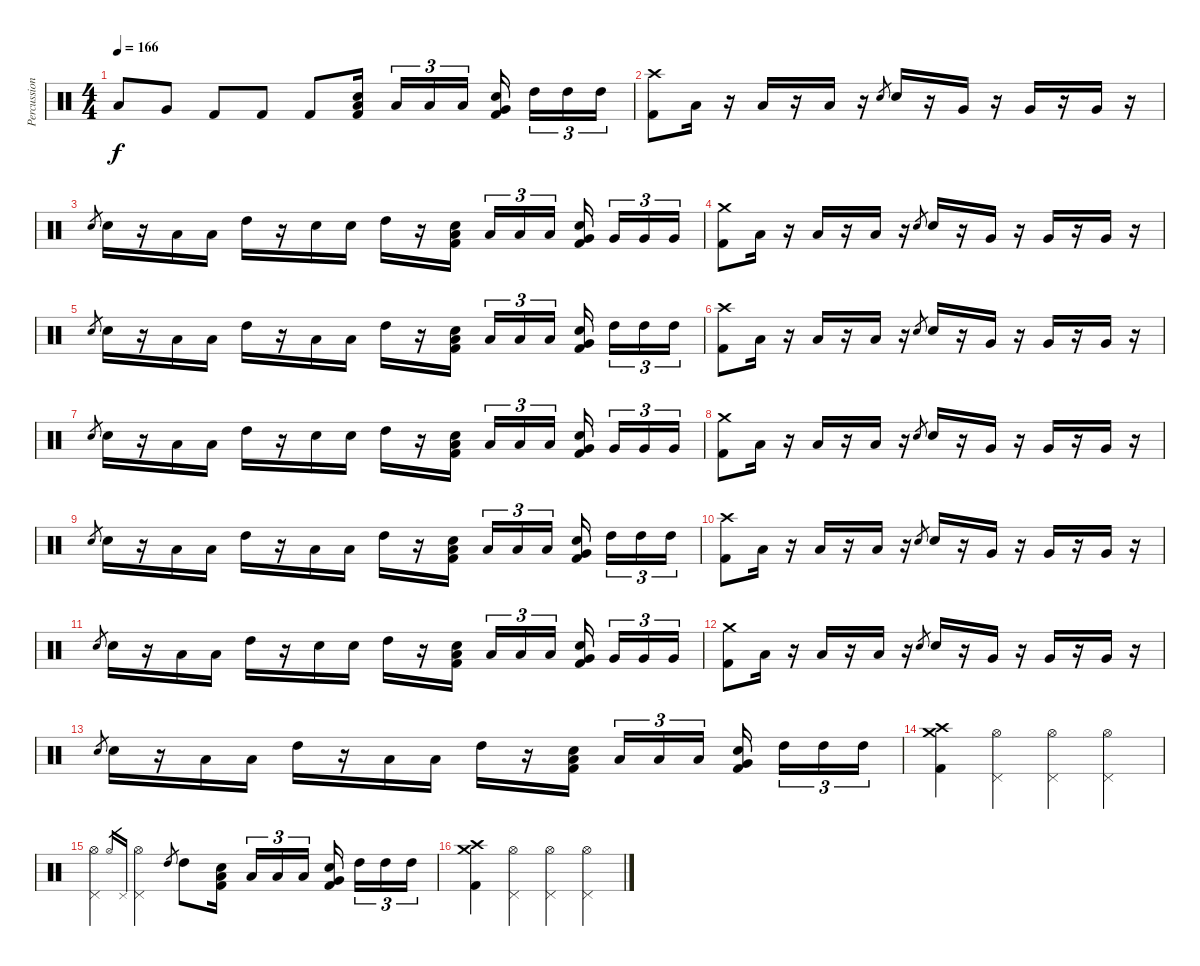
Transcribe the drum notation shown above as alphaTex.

\track ("Percussion" "Percussion") {instrument percussion}
\staff {score}
\articulation defaults
\ts (4 4)
\tempo 166
\clef neutral
\ks c "Low Floor Tom (hit)".8{dy f} "Very Low Tom (hit)".8 "Kick (hit) 2".8 "Kick (hit) 2".8 "Kick (hit) 2".8
("Low Floor Tom (hit)" "Snare (hit) 2" "Kick (hit) 2").16 "Low Tom (hit)".16{tu (3 2)} "Low Tom (hit)".16{tu (3 2)} "Low Tom (hit)".16{tu (3 2)} ("Very Low Tom (hit)" "Snare (hit) 2" "Kick (hit) 2").16 "High Tom (hit)".16{tu (3 2)} "High Tom (hit)".16{tu (3 2)} "High Tom (hit)".16{tu (3 2)} |
("Crash high (hit)" "Kick (hit) 2").8 "Low Floor Tom (hit)".16 r.16 "Low Floor Tom (hit)".16 r.16 "Low Floor Tom (hit)".16 r.16 "Snare (hit) 2".8{gr} "Snare (hit) 2".16 r.16 "Very Low Tom (hit)".16 r.16 "Very Low Tom (hit)".16 r.16 "Very Low Tom (hit)".16 r.16 |
"Snare (hit) 2".8{gr} "Snare (hit) 2".16 r.16 "Low Tom (hit)".16 "Low Tom (hit)".16 "High Tom (hit)".16 r.16 "Snare (hit) 2".16 "Snare (hit) 2".16 "High Tom (hit)".16 r.16 ("Snare (hit) 2" "Low Floor Tom (hit)" "Kick (hit) 2").16 "Low Floor Tom (hit)".16{tu (3 2)} "Low Floor Tom (hit)".16{tu (3 2)} "Low Floor Tom (hit)".16{tu (3 2)} ("Snare (hit) 2" "Very Low Tom (hit)" "Kick (hit) 2").16 "Very Low Tom (hit)".16{tu (3 2)} "Very Low Tom (hit)".16{tu (3 2)} "Very Low Tom (hit)".16{tu (3 2)} |
("Crash medium (hit)" "Kick (hit) 2").8 "Low Floor Tom (hit)".16 r.16 "Low Floor Tom (hit)".16 r.16 "Low Floor Tom (hit)".16 r.16 "Snare (hit) 2".8{gr} "Snare (hit) 2".16 r.16 "Very Low Tom (hit)".16 r.16 "Very Low Tom (hit)".16 r.16 "Very Low Tom (hit)".16 r.16 |
"Snare (hit) 2".8{gr} "Snare (hit) 2".16 r.16 "Low Tom (hit)".16 "Low Tom (hit)".16 "High Tom (hit)".16 r.16 "Low Tom (hit)".16 "Low Tom (hit)".16 "High Tom (hit)".16 r.16 ("Low Floor Tom (hit)" "Snare (hit) 2" "Kick (hit) 2").16 "Low Tom (hit)".16{tu (3 2)} "Low Tom (hit)".16{tu (3 2)} "Low Tom (hit)".16{tu (3 2)} ("Very Low Tom (hit)" "Snare (hit) 2" "Kick (hit) 2").16 "High Tom (hit)".16{tu (3 2)} "High Tom (hit)".16{tu (3 2)} "High Tom (hit)".16{tu (3 2)} |
("Crash high (hit)" "Kick (hit) 2").8 "Low Floor Tom (hit)".16 r.16 "Low Floor Tom (hit)".16 r.16 "Low Floor Tom (hit)".16 r.16 "Snare (hit) 2".8{gr} "Snare (hit) 2".16 r.16 "Very Low Tom (hit)".16 r.16 "Very Low Tom (hit)".16 r.16 "Very Low Tom (hit)".16 r.16 |
"Snare (hit) 2".8{gr} "Snare (hit) 2".16 r.16 "Low Tom (hit)".16 "Low Tom (hit)".16 "High Tom (hit)".16 r.16 "Snare (hit) 2".16 "Snare (hit) 2".16 "High Tom (hit)".16 r.16 ("Snare (hit) 2" "Low Floor Tom (hit)" "Kick (hit) 2").16 "Low Floor Tom (hit)".16{tu (3 2)} "Low Floor Tom (hit)".16{tu (3 2)} "Low Floor Tom (hit)".16{tu (3 2)} ("Snare (hit) 2" "Very Low Tom (hit)" "Kick (hit) 2").16 "Very Low Tom (hit)".16{tu (3 2)} "Very Low Tom (hit)".16{tu (3 2)} "Very Low Tom (hit)".16{tu (3 2)} |
("Crash medium (hit)" "Kick (hit) 2").8 "Low Floor Tom (hit)".16 r.16 "Low Floor Tom (hit)".16 r.16 "Low Floor Tom (hit)".16 r.16 "Snare (hit) 2".8{gr} "Snare (hit) 2".16 r.16 "Very Low Tom (hit)".16 r.16 "Very Low Tom (hit)".16 r.16 "Very Low Tom (hit)".16 r.16 |
"Snare (hit) 2".8{gr} "Snare (hit) 2".16 r.16 "Low Tom (hit)".16 "Low Tom (hit)".16 "High Tom (hit)".16 r.16 "Low Tom (hit)".16 "Low Tom (hit)".16 "High Tom (hit)".16 r.16 ("Low Floor Tom (hit)" "Snare (hit) 2" "Kick (hit) 2").16 "Low Tom (hit)".16{tu (3 2)} "Low Tom (hit)".16{tu (3 2)} "Low Tom (hit)".16{tu (3 2)} ("Very Low Tom (hit)" "Snare (hit) 2" "Kick (hit) 2").16 "High Tom (hit)".16{tu (3 2)} "High Tom (hit)".16{tu (3 2)} "High Tom (hit)".16{tu (3 2)} |
("Crash high (hit)" "Kick (hit) 2").8 "Low Floor Tom (hit)".16 r.16 "Low Floor Tom (hit)".16 r.16 "Low Floor Tom (hit)".16 r.16 "Snare (hit) 2".8{gr} "Snare (hit) 2".16 r.16 "Very Low Tom (hit)".16 r.16 "Very Low Tom (hit)".16 r.16 "Very Low Tom (hit)".16 r.16 |
"Snare (hit) 2".8{gr} "Snare (hit) 2".16 r.16 "Low Tom (hit)".16 "Low Tom (hit)".16 "High Tom (hit)".16 r.16 "Snare (hit) 2".16 "Snare (hit) 2".16 "High Tom (hit)".16 r.16 ("Snare (hit) 2" "Low Floor Tom (hit)" "Kick (hit) 2").16 "Low Floor Tom (hit)".16{tu (3 2)} "Low Floor Tom (hit)".16{tu (3 2)} "Low Floor Tom (hit)".16{tu (3 2)} ("Snare (hit) 2" "Very Low Tom (hit)" "Kick (hit) 2").16 "Very Low Tom (hit)".16{tu (3 2)} "Very Low Tom (hit)".16{tu (3 2)} "Very Low Tom (hit)".16{tu (3 2)} |
("Crash medium (hit)" "Kick (hit) 2").8 "Low Floor Tom (hit)".16 r.16 "Low Floor Tom (hit)".16 r.16 "Low Floor Tom (hit)".16 r.16 "Snare (hit) 2".8{gr} "Snare (hit) 2".16 r.16 "Very Low Tom (hit)".16 r.16 "Very Low Tom (hit)".16 r.16 "Very Low Tom (hit)".16 r.16 |
"Snare (hit) 2".8{gr} "Snare (hit) 2".16 r.16 "Low Tom (hit)".16 "Low Tom (hit)".16 "High Tom (hit)".16 r.16 "Low Tom (hit)".16 "Low Tom (hit)".16 "High Tom (hit)".16 r.16 ("Low Floor Tom (hit)" "Snare (hit) 2" "Kick (hit) 2").16 "Low Tom (hit)".16{tu (3 2)} "Low Tom (hit)".16{tu (3 2)} "Low Tom (hit)".16{tu (3 2)} ("Very Low Tom (hit)" "Snare (hit) 2" "Kick (hit) 2").16 "High Tom (hit)".16{tu (3 2)} "High Tom (hit)".16{tu (3 2)} "High Tom (hit)".16{tu (3 2)} |
("Crash high (hit)" "Crash medium (hit)" "Kick (hit) 2").4 ("Hi-Hat (open)" "Pedal Hi-Hat (hit)").4 ("Hi-Hat (open)" "Pedal Hi-Hat (hit)").4 ("Hi-Hat (open)" "Pedal Hi-Hat (hit)").4 |
("Hi-Hat (open)" "Pedal Hi-Hat (hit)").4 "Hi-Hat (open)".16{gr} "Pedal Hi-Hat (hit)".16{gr} ("Hi-Hat (open)" "Pedal Hi-Hat (hit)").4 "High Tom (hit)".8{gr} "High Tom (hit)".8 ("Low Floor Tom (hit)" "Snare (hit) 2" "Kick (hit) 2").16 "Low Tom (hit)".16{tu (3 2)} "Low Tom (hit)".16{tu (3 2)} "Low Tom (hit)".16{tu (3 2)} ("Very Low Tom (hit)" "Snare (hit) 2" "Kick (hit) 2").16 "High Tom (hit)".16{tu (3 2)} "High Tom (hit)".16{tu (3 2)} "High Tom (hit)".16{tu (3 2)} |
("Crash medium (hit)" "Crash high (hit)" "Kick (hit) 2").4 ("Hi-Hat (open)" "Pedal Hi-Hat (hit)").4 ("Hi-Hat (open)" "Pedal Hi-Hat (hit)").4 ("Hi-Hat (open)" "Pedal Hi-Hat (hit)").4
